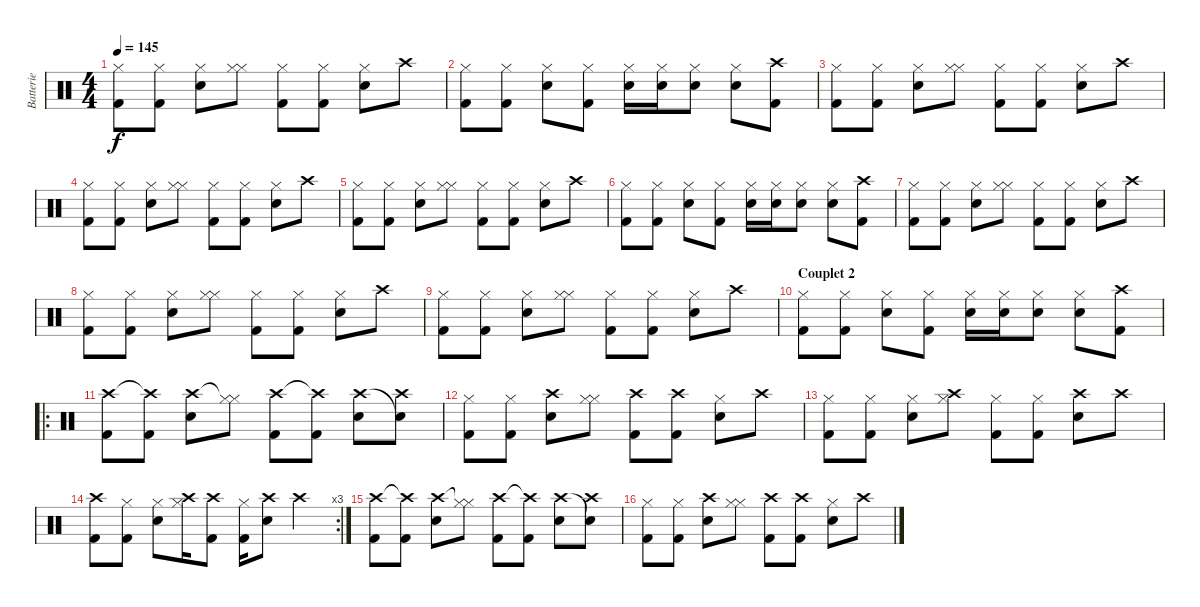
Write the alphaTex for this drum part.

\track ("Batterie" "Batterie") {instrument percussion}
\staff {score}
\articulation defaults
\ts (4 4)
\tempo 145
\clef neutral
\ks c
("Kick (hit) 2" "Hi-Hat (closed)").8{dy f} ("Kick (hit) 2" "Hi-Hat (closed)").8 ("Snare (hit) 2" "Hi-Hat (closed)").8 ("Hi-Hat (closed)" "Hi-Hat (closed)").8 ("Kick (hit) 2" "Hi-Hat (closed)").8 ("Kick (hit) 2" "Hi-Hat (closed)").8 ("Snare (hit) 2" "Hi-Hat (closed)").8 "Crash high (hit)".8 |
("Kick (hit) 2" "Hi-Hat (closed)").8 ("Kick (hit) 2" "Hi-Hat (closed)").8 ("Snare (hit) 2" "Hi-Hat (closed)").8 ("Kick (hit) 2" "Hi-Hat (closed)").8 ("Snare (hit) 2" "Hi-Hat (closed)").16 ("Snare (hit) 2" "Hi-Hat (closed)").16 ("Snare (hit) 2" "Hi-Hat (closed)").8 ("Snare (hit) 2" "Hi-Hat (closed)").8 ("Kick (hit) 2" "Crash high (hit)").8 |
("Kick (hit) 2" "Hi-Hat (closed)").8 ("Kick (hit) 2" "Hi-Hat (closed)").8 ("Snare (hit) 2" "Hi-Hat (closed)").8 ("Hi-Hat (closed)" "Hi-Hat (closed)").8 ("Kick (hit) 2" "Hi-Hat (closed)").8 ("Kick (hit) 2" "Hi-Hat (closed)").8 ("Snare (hit) 2" "Hi-Hat (closed)").8 "Crash high (hit)".8 |
("Kick (hit) 2" "Hi-Hat (closed)").8 ("Kick (hit) 2" "Hi-Hat (closed)").8 ("Snare (hit) 2" "Hi-Hat (closed)").8 ("Hi-Hat (closed)" "Hi-Hat (closed)").8 ("Kick (hit) 2" "Hi-Hat (closed)").8 ("Kick (hit) 2" "Hi-Hat (closed)").8 ("Snare (hit) 2" "Hi-Hat (closed)").8 "Crash high (hit)".8 |
("Kick (hit) 2" "Hi-Hat (closed)").8 ("Kick (hit) 2" "Hi-Hat (closed)").8 ("Snare (hit) 2" "Hi-Hat (closed)").8 ("Hi-Hat (closed)" "Hi-Hat (closed)").8 ("Kick (hit) 2" "Hi-Hat (closed)").8 ("Kick (hit) 2" "Hi-Hat (closed)").8 ("Snare (hit) 2" "Hi-Hat (closed)").8 "Crash high (hit)".8 |
("Kick (hit) 2" "Hi-Hat (closed)").8 ("Kick (hit) 2" "Hi-Hat (closed)").8 ("Snare (hit) 2" "Hi-Hat (closed)").8 ("Kick (hit) 2" "Hi-Hat (closed)").8 ("Snare (hit) 2" "Hi-Hat (closed)").16 ("Snare (hit) 2" "Hi-Hat (closed)").16 ("Snare (hit) 2" "Hi-Hat (closed)").8 ("Snare (hit) 2" "Hi-Hat (closed)").8 ("Kick (hit) 2" "Crash high (hit)").8 |
("Kick (hit) 2" "Hi-Hat (closed)").8 ("Kick (hit) 2" "Hi-Hat (closed)").8 ("Snare (hit) 2" "Hi-Hat (closed)").8 ("Hi-Hat (closed)" "Hi-Hat (closed)").8 ("Kick (hit) 2" "Hi-Hat (closed)").8 ("Kick (hit) 2" "Hi-Hat (closed)").8 ("Snare (hit) 2" "Hi-Hat (closed)").8 "Crash high (hit)".8 |
("Kick (hit) 2" "Hi-Hat (closed)").8 ("Kick (hit) 2" "Hi-Hat (closed)").8 ("Snare (hit) 2" "Hi-Hat (closed)").8 ("Hi-Hat (closed)" "Hi-Hat (closed)").8 ("Kick (hit) 2" "Hi-Hat (closed)").8 ("Kick (hit) 2" "Hi-Hat (closed)").8 ("Snare (hit) 2" "Hi-Hat (closed)").8 "Crash high (hit)".8 |
("Kick (hit) 2" "Hi-Hat (closed)").8 ("Kick (hit) 2" "Hi-Hat (closed)").8 ("Snare (hit) 2" "Hi-Hat (closed)").8 ("Hi-Hat (closed)" "Hi-Hat (closed)").8 ("Kick (hit) 2" "Hi-Hat (closed)").8 ("Kick (hit) 2" "Hi-Hat (closed)").8 ("Snare (hit) 2" "Hi-Hat (closed)").8 "Crash high (hit)".8 |
\section ("" "Couplet 2")
("Kick (hit) 2" "Hi-Hat (closed)").8 ("Kick (hit) 2" "Hi-Hat (closed)").8 ("Snare (hit) 2" "Hi-Hat (closed)").8 ("Kick (hit) 2" "Hi-Hat (closed)").8 ("Snare (hit) 2" "Hi-Hat (closed)").16 ("Snare (hit) 2" "Hi-Hat (closed)").16 ("Snare (hit) 2" "Hi-Hat (closed)").8 ("Snare (hit) 2" "Hi-Hat (closed)").8 ("Kick (hit) 2" "Crash high (hit)").8 |
\ro
("Kick (hit) 2" "Crash high (hit)").8 ("Kick (hit) 2" "Crash high (hit)"{t}).8 ("Snare (hit) 2" "Crash high (hit)").8 ("Hi-Hat (closed)" "Hi-Hat (closed)"{t}).8 ("Kick (hit) 2" "Crash high (hit)").8 ("Kick (hit) 2" "Crash high (hit)"{t}).8 ("Snare (hit) 2" "Crash high (hit)").8 ("Crash high (hit)" "Snare (hit)"{t}).8 |
("Kick (hit) 2" "Hi-Hat (closed)").8 ("Kick (hit) 2" "Hi-Hat (closed)").8 ("Snare (hit) 2" "Crash high (hit)").8 ("Hi-Hat (closed)" "Hi-Hat (closed)").8 ("Kick (hit) 2" "Crash high (hit)").8 ("Kick (hit) 2" "Crash high (hit)").8 ("Snare (hit) 2" "Hi-Hat (closed)").8 "Crash high (hit)".8 |
("Kick (hit) 2" "Hi-Hat (closed)").8 ("Kick (hit) 2" "Hi-Hat (closed)").8 ("Snare (hit) 2" "Hi-Hat (closed)").8 ("Hi-Hat (closed)" "Crash high (hit)").8 ("Kick (hit) 2" "Hi-Hat (closed)").8 ("Kick (hit) 2" "Hi-Hat (closed)").8 ("Snare (hit) 2" "Crash high (hit)").8 "Crash high (hit)".8 |
\rc 3
("Kick (hit) 2" "Crash high (hit)").8 ("Kick (hit) 2" "Hi-Hat (closed)").8 ("Snare (hit) 2" "Hi-Hat (closed)").8 ("Hi-Hat (closed)" "Crash high (hit)").16 ("Kick (hit) 2" "Crash high (hit)").8 ("Kick (hit) 2" "Hi-Hat (closed)").16 ("Snare (hit) 2" "Crash high (hit)").8 "Crash high (hit)".4 |
("Kick (hit) 2" "Crash high (hit)").8 ("Kick (hit) 2" "Crash high (hit)"{t}).8 ("Snare (hit) 2" "Crash high (hit)").8 ("Hi-Hat (closed)" "Hi-Hat (closed)"{t}).8 ("Kick (hit) 2" "Crash high (hit)").8 ("Kick (hit) 2" "Crash high (hit)"{t}).8 ("Snare (hit) 2" "Crash high (hit)").8 ("Crash high (hit)" "Snare (hit)"{t}).8 |
("Kick (hit) 2" "Hi-Hat (closed)").8 ("Kick (hit) 2" "Hi-Hat (closed)").8 ("Snare (hit) 2" "Crash high (hit)").8 ("Hi-Hat (closed)" "Hi-Hat (closed)").8 ("Kick (hit) 2" "Crash high (hit)").8 ("Kick (hit) 2" "Crash high (hit)").8 ("Snare (hit) 2" "Hi-Hat (closed)").8 "Crash high (hit)".8
